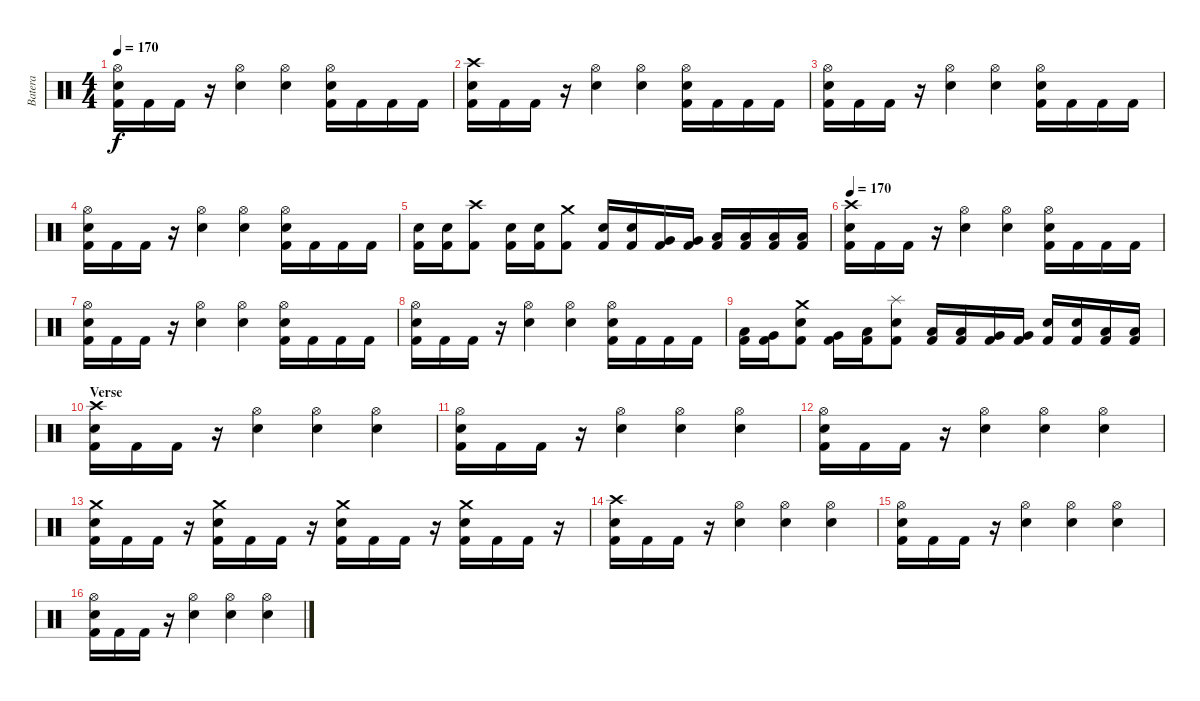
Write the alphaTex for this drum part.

\track ("Batera" "Batera") {instrument percussion}
\staff {score}
\articulation defaults
\ts (4 4)
\tempo 170
\clef neutral
\ks c
("Hi-Hat (open)" "Electric Snare (hit)" "Kick (hit) 2").16{dy f} "Kick (hit) 2".16 "Kick (hit) 2".16 r.16 ("Hi-Hat (open)" "Electric Snare (hit)").4 ("Hi-Hat (open)" "Electric Snare (hit)").4 ("Hi-Hat (open)" "Electric Snare (hit)" "Kick (hit) 2").16 "Kick (hit) 2".16 "Kick (hit) 2".16 "Kick (hit) 2".16 |
("Crash high (hit)" "Electric Snare (hit)" "Kick (hit) 2").16 "Kick (hit) 2".16 "Kick (hit) 2".16 r.16 ("Hi-Hat (open)" "Electric Snare (hit)").4 ("Hi-Hat (open)" "Electric Snare (hit)").4 ("Hi-Hat (open)" "Electric Snare (hit)" "Kick (hit) 2").16 "Kick (hit) 2".16 "Kick (hit) 2".16 "Kick (hit) 2".16 |
("Hi-Hat (open)" "Electric Snare (hit)" "Kick (hit) 2").16 "Kick (hit) 2".16 "Kick (hit) 2".16 r.16 ("Hi-Hat (open)" "Electric Snare (hit)").4 ("Hi-Hat (open)" "Electric Snare (hit)").4 ("Hi-Hat (open)" "Electric Snare (hit)" "Kick (hit) 2").16 "Kick (hit) 2".16 "Kick (hit) 2".16 "Kick (hit) 2".16 |
("Hi-Hat (open)" "Electric Snare (hit)" "Kick (hit) 2").16 "Kick (hit) 2".16 "Kick (hit) 2".16 r.16 ("Hi-Hat (open)" "Electric Snare (hit)").4 ("Hi-Hat (open)" "Electric Snare (hit)").4 ("Hi-Hat (open)" "Electric Snare (hit)" "Kick (hit) 2").16 "Kick (hit) 2".16 "Kick (hit) 2".16 "Kick (hit) 2".16 |
("Electric Snare (hit)" "Kick (hit) 2").16 ("Electric Snare (hit)" "Kick (hit) 2").16 ("Crash high (hit)" "Kick (hit) 2").8 ("Electric Snare (hit)" "Kick (hit) 2").16 ("Electric Snare (hit)" "Kick (hit) 2").16 ("Crash medium (hit)" "Kick (hit) 2").8 ("Electric Snare (hit)" "Kick (hit) 2").16 ("Electric Snare (hit)" "Kick (hit) 2").16 ("Very Low Tom (hit)" "Kick (hit) 2").16 ("Very Low Tom (hit)" "Kick (hit) 2").16 ("Low Tom (hit)" "Kick (hit) 2").16 ("Low Tom (hit)" "Kick (hit) 2").16 ("Low Floor Tom (hit)" "Kick (hit) 2").16 ("Low Floor Tom (hit)" "Kick (hit) 2").16 |
\tempo 170
("Crash high (hit)" "Electric Snare (hit)" "Kick (hit) 2").16 "Kick (hit) 2".16 "Kick (hit) 2".16 r.16 ("Hi-Hat (open)" "Electric Snare (hit)").4 ("Hi-Hat (open)" "Electric Snare (hit)").4 ("Hi-Hat (open)" "Electric Snare (hit)" "Kick (hit) 2").16 "Kick (hit) 2".16 "Kick (hit) 2".16 "Kick (hit) 2".16 |
("Hi-Hat (open)" "Electric Snare (hit)" "Kick (hit) 2").16 "Kick (hit) 2".16 "Kick (hit) 2".16 r.16 ("Hi-Hat (open)" "Electric Snare (hit)").4 ("Hi-Hat (open)" "Electric Snare (hit)").4 ("Hi-Hat (open)" "Electric Snare (hit)" "Kick (hit) 2").16 "Kick (hit) 2".16 "Kick (hit) 2".16 "Kick (hit) 2".16 |
("Hi-Hat (open)" "Electric Snare (hit)" "Kick (hit) 2").16 "Kick (hit) 2".16 "Kick (hit) 2".16 r.16 ("Hi-Hat (open)" "Electric Snare (hit)").4 ("Hi-Hat (open)" "Electric Snare (hit)").4 ("Hi-Hat (open)" "Electric Snare (hit)" "Kick (hit) 2").16 "Kick (hit) 2".16 "Kick (hit) 2".16 "Kick (hit) 2".16 |
("Low Floor Tom (hit)" "Kick (hit) 2").16 ("Very Low Tom (hit)" "Kick (hit) 2").16 ("Crash medium (hit)" "Electric Snare (hit)" "Kick (hit) 2").8 ("Very Low Tom (hit)" "Kick (hit) 2").16 ("Low Tom (hit)" "Kick (hit) 2").16 ("Splash (hit)" "Electric Snare (hit)" "Kick (hit) 2").8 ("Low Floor Tom (hit)" "Kick (hit) 2").16 ("Low Floor Tom (hit)" "Kick (hit) 2").16 ("Very Low Tom (hit)" "Kick (hit) 2").16 ("Very Low Tom (hit)" "Kick (hit) 2").16 ("Electric Snare (hit)" "Kick (hit) 2").16 ("Electric Snare (hit)" "Kick (hit) 2").16 ("Low Floor Tom (hit)" "Kick (hit) 2").16 ("Low Floor Tom (hit)" "Kick (hit) 2").16 |
\section ("" "Verse")
("Crash high (hit)" "Electric Snare (hit)" "Kick (hit) 2").16 "Kick (hit) 2".16 "Kick (hit) 2".16 r.16 ("Hi-Hat (open)" "Electric Snare (hit)").4 ("Hi-Hat (open)" "Electric Snare (hit)").4 ("Hi-Hat (open)" "Electric Snare (hit)").4 |
("Hi-Hat (open)" "Electric Snare (hit)" "Kick (hit) 2").16 "Kick (hit) 2".16 "Kick (hit) 2".16 r.16 ("Hi-Hat (open)" "Electric Snare (hit)").4 ("Hi-Hat (open)" "Electric Snare (hit)").4 ("Hi-Hat (open)" "Electric Snare (hit)").4 |
("Hi-Hat (open)" "Electric Snare (hit)" "Kick (hit) 2").16 "Kick (hit) 2".16 "Kick (hit) 2".16 r.16 ("Hi-Hat (open)" "Electric Snare (hit)").4 ("Hi-Hat (open)" "Electric Snare (hit)").4 ("Hi-Hat (open)" "Electric Snare (hit)").4 |
("Crash medium (hit)" "Electric Snare (hit)" "Kick (hit) 2").16 "Kick (hit) 2".16 "Kick (hit) 2".16 r.16 ("Crash medium (hit)" "Electric Snare (hit)" "Kick (hit) 2").16 "Kick (hit) 2".16 "Kick (hit) 2".16 r.16 ("Crash medium (hit)" "Electric Snare (hit)" "Kick (hit) 2").16 "Kick (hit) 2".16 "Kick (hit) 2".16 r.16 ("Crash medium (hit)" "Electric Snare (hit)" "Kick (hit) 2").16 "Kick (hit) 2".16 "Kick (hit) 2".16 r.16 |
("Crash high (hit)" "Electric Snare (hit)" "Kick (hit) 2").16 "Kick (hit) 2".16 "Kick (hit) 2".16 r.16 ("Hi-Hat (open)" "Electric Snare (hit)").4 ("Hi-Hat (open)" "Electric Snare (hit)").4 ("Hi-Hat (open)" "Electric Snare (hit)").4 |
("Hi-Hat (open)" "Electric Snare (hit)" "Kick (hit) 2").16 "Kick (hit) 2".16 "Kick (hit) 2".16 r.16 ("Hi-Hat (open)" "Electric Snare (hit)").4 ("Hi-Hat (open)" "Electric Snare (hit)").4 ("Hi-Hat (open)" "Electric Snare (hit)").4 |
("Hi-Hat (open)" "Electric Snare (hit)" "Kick (hit) 2").16 "Kick (hit) 2".16 "Kick (hit) 2".16 r.16 ("Hi-Hat (open)" "Electric Snare (hit)").4 ("Hi-Hat (open)" "Electric Snare (hit)").4 ("Hi-Hat (open)" "Electric Snare (hit)").4
